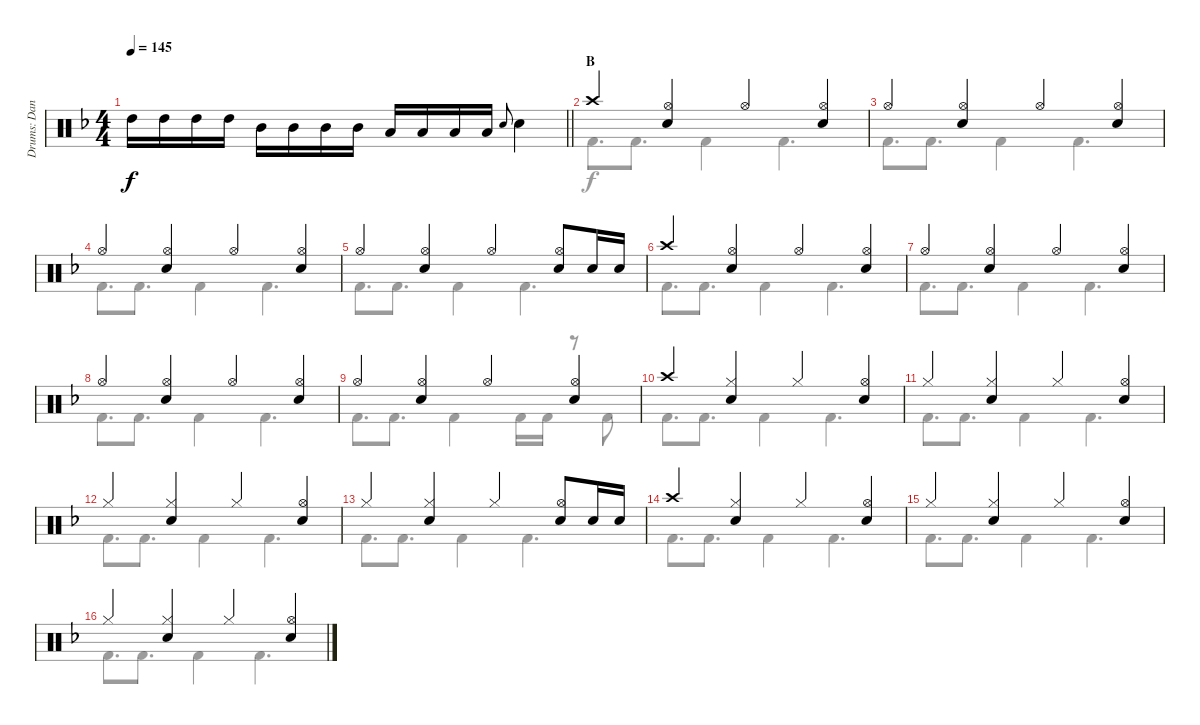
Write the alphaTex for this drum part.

\track ("Drums: Dana" "Drums: Dan") {instrument percussion}
\staff {score}
\articulation defaults
\voice
\ts (4 4)
\tempo 145
\clef neutral
\barLineRight lightlight
\ks f "High Tom (hit)".16{dy f} "High Tom (hit)".16 "High Tom (hit)".16 "High Tom (hit)".16 "Mid Tom (hit)".16 "Mid Tom (hit)".16 "Mid Tom (hit)".16 "Mid Tom (hit)".16 "Low Tom (hit)".16 "Low Tom (hit)".16 "Low Tom (hit)".16 "Low Tom (hit)".16 "Electric Snare (hit)".8{gr onbeat} "Snare (hit) 2".4
|
\section ("" "B")
"Crash high (hit)".4 ("Hi-Hat (open)" "Snare (hit) 2").4 "Hi-Hat (open)".4 ("Hi-Hat (open)" "Snare (hit) 2").4 |
"Hi-Hat (open)".4 ("Hi-Hat (open)" "Snare (hit) 2").4 "Hi-Hat (open)".4 ("Hi-Hat (open)" "Snare (hit) 2").4 |
"Hi-Hat (open)".4 ("Hi-Hat (open)" "Snare (hit) 2").4 "Hi-Hat (open)".4 ("Hi-Hat (open)" "Snare (hit) 2").4 |
"Hi-Hat (open)".4 ("Hi-Hat (open)" "Snare (hit) 2").4 "Hi-Hat (open)".4 ("Hi-Hat (open)" "Snare (hit) 2").8 "Snare (hit) 2".16 "Snare (hit) 2".16 |
"Crash high (hit)".4 ("Hi-Hat (open)" "Snare (hit) 2").4 "Hi-Hat (open)".4 ("Hi-Hat (open)" "Snare (hit) 2").4 |
"Hi-Hat (open)".4 ("Hi-Hat (open)" "Snare (hit) 2").4 "Hi-Hat (open)".4 ("Hi-Hat (open)" "Snare (hit) 2").4 |
"Hi-Hat (open)".4 ("Hi-Hat (open)" "Snare (hit) 2").4 "Hi-Hat (open)".4 ("Hi-Hat (open)" "Snare (hit) 2").4 |
"Hi-Hat (open)".4 ("Hi-Hat (open)" "Snare (hit) 2").4 "Hi-Hat (open)".4 ("Hi-Hat (open)" "Snare (hit) 2").4 |
"Crash high (hit)".4 ("Hi-Hat (closed)" "Snare (hit) 2").4 "Hi-Hat (closed)".4 ("Hi-Hat (open)" "Snare (hit) 2").4 |
"Hi-Hat (closed)".4 ("Hi-Hat (closed)" "Snare (hit) 2").4 "Hi-Hat (closed)".4 ("Hi-Hat (open)" "Snare (hit) 2").4 |
"Hi-Hat (closed)".4 ("Hi-Hat (closed)" "Snare (hit) 2").4 "Hi-Hat (closed)".4 ("Hi-Hat (open)" "Snare (hit) 2").4 |
"Hi-Hat (closed)".4 ("Hi-Hat (closed)" "Snare (hit) 2").4 "Hi-Hat (closed)".4 ("Hi-Hat (open)" "Snare (hit) 2").8 "Snare (hit) 2".16 "Snare (hit) 2".16 |
"Crash high (hit)".4 ("Hi-Hat (closed)" "Snare (hit) 2").4 "Hi-Hat (closed)".4 ("Hi-Hat (open)" "Snare (hit) 2").4 |
"Hi-Hat (closed)".4 ("Hi-Hat (closed)" "Snare (hit) 2").4 "Hi-Hat (closed)".4 ("Hi-Hat (open)" "Snare (hit) 2").4 |
"Hi-Hat (closed)".4 ("Hi-Hat (closed)" "Snare (hit) 2").4 "Hi-Hat (closed)".4 ("Hi-Hat (open)" "Snare (hit) 2").4
\voice
\clef neutral
\ottava regular
\simile none
\barLineRight lightlight
\ks f
|
"Kick (hit) 2".8{d} "Kick (hit) 2".8{d} "Kick (hit) 2".4 "Kick (hit) 2".4{d} |
"Kick (hit) 2".8{d} "Kick (hit) 2".8{d} "Kick (hit) 2".4 "Kick (hit) 2".4{d} |
"Kick (hit) 2".8{d} "Kick (hit) 2".8{d} "Kick (hit) 2".4 "Kick (hit) 2".4{d} |
"Kick (hit) 2".8{d} "Kick (hit) 2".8{d} "Kick (hit) 2".4 "Kick (hit) 2".4{d} |
"Kick (hit) 2".8{d} "Kick (hit) 2".8{d} "Kick (hit) 2".4 "Kick (hit) 2".4{d} |
"Kick (hit) 2".8{d} "Kick (hit) 2".8{d} "Kick (hit) 2".4 "Kick (hit) 2".4{d} |
"Kick (hit) 2".8{d} "Kick (hit) 2".8{d} "Kick (hit) 2".4 "Kick (hit) 2".4{d} |
"Kick (hit) 2".8{d} "Kick (hit) 2".8{d} "Kick (hit) 2".4 "Kick (hit) 2".16 "Kick (hit) 2".16 r.8 "Kick (hit) 2".8 |
"Kick (hit) 2".8{d} "Kick (hit) 2".8{d} "Kick (hit) 2".4 "Kick (hit) 2".4{d} |
"Kick (hit) 2".8{d} "Kick (hit) 2".8{d} "Kick (hit) 2".4 "Kick (hit) 2".4{d} |
"Kick (hit) 2".8{d} "Kick (hit) 2".8{d} "Kick (hit) 2".4 "Kick (hit) 2".4{d} |
"Kick (hit) 2".8{d} "Kick (hit) 2".8{d} "Kick (hit) 2".4 "Kick (hit) 2".4{d} |
"Kick (hit) 2".8{d} "Kick (hit) 2".8{d} "Kick (hit) 2".4 "Kick (hit) 2".4{d} |
"Kick (hit) 2".8{d} "Kick (hit) 2".8{d} "Kick (hit) 2".4 "Kick (hit) 2".4{d} |
"Kick (hit) 2".8{d} "Kick (hit) 2".8{d} "Kick (hit) 2".4 "Kick (hit) 2".4{d}
